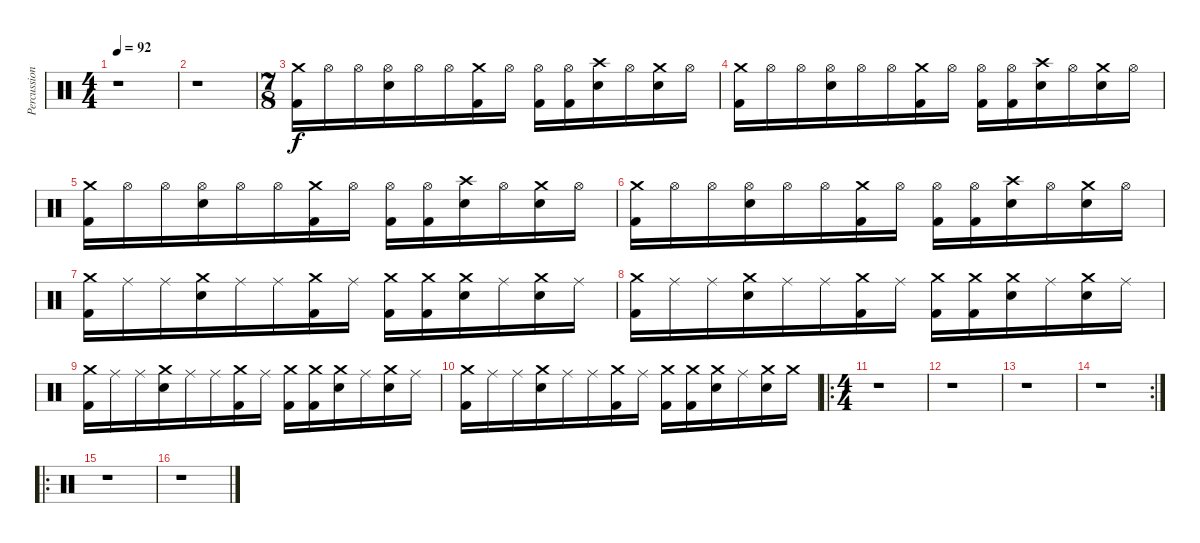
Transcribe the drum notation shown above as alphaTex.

\track ("Percussion" "Percussion") {instrument percussion}
\staff {score}
\articulation defaults
\ts (4 4)
\tempo 92
\clef neutral
\ks c
r.1{dy f} |
r.1 |
\ts (7 8)
("Crash medium (hit)" "Kick (hit) 2").16 "Hi-Hat (open)".16 "Hi-Hat (open)".16 ("Hi-Hat (open)" "Electric Snare (hit)").16 "Hi-Hat (open)".16 "Hi-Hat (open)".16 ("Crash medium (hit)" "Kick (hit) 2").16 "Hi-Hat (open)".16 ("Hi-Hat (open)" "Kick (hit) 2").16 ("Hi-Hat (open)" "Kick (hit) 2").16 ("Crash high (hit)" "Electric Snare (hit)").16 "Hi-Hat (open)".16 ("Crash medium (hit)" "Electric Snare (hit)").16 "Hi-Hat (open)".16 |
("Crash medium (hit)" "Kick (hit) 2").16 "Hi-Hat (open)".16 "Hi-Hat (open)".16 ("Hi-Hat (open)" "Electric Snare (hit)").16 "Hi-Hat (open)".16 "Hi-Hat (open)".16 ("Crash medium (hit)" "Kick (hit) 2").16 "Hi-Hat (open)".16 ("Hi-Hat (open)" "Kick (hit) 2").16 ("Hi-Hat (open)" "Kick (hit) 2").16 ("Crash high (hit)" "Electric Snare (hit)").16 "Hi-Hat (open)".16 ("Crash medium (hit)" "Electric Snare (hit)").16 "Hi-Hat (open)".16 |
("Crash medium (hit)" "Kick (hit) 2").16 "Hi-Hat (open)".16 "Hi-Hat (open)".16 ("Hi-Hat (open)" "Electric Snare (hit)").16 "Hi-Hat (open)".16 "Hi-Hat (open)".16 ("Crash medium (hit)" "Kick (hit) 2").16 "Hi-Hat (open)".16 ("Hi-Hat (open)" "Kick (hit) 2").16 ("Hi-Hat (open)" "Kick (hit) 2").16 ("Crash high (hit)" "Electric Snare (hit)").16 "Hi-Hat (open)".16 ("Crash medium (hit)" "Electric Snare (hit)").16 "Hi-Hat (open)".16 |
("Crash medium (hit)" "Kick (hit) 2").16 "Hi-Hat (open)".16 "Hi-Hat (open)".16 ("Hi-Hat (open)" "Electric Snare (hit)").16 "Hi-Hat (open)".16 "Hi-Hat (open)".16 ("Crash medium (hit)" "Kick (hit) 2").16 "Hi-Hat (open)".16 ("Hi-Hat (open)" "Kick (hit) 2").16 ("Hi-Hat (open)" "Kick (hit) 2").16 ("Crash high (hit)" "Electric Snare (hit)").16 "Hi-Hat (open)".16 ("Crash medium (hit)" "Electric Snare (hit)").16 "Hi-Hat (open)".16 |
("Crash medium (hit)" "Kick (hit) 2").16 "Ride (middle)".16 "Ride (middle)".16 ("Crash medium (hit)" "Electric Snare (hit)").16 "Ride (middle)".16 "Ride (middle)".16 ("Crash medium (hit)" "Kick (hit) 2").16 "Ride (middle)".16 ("Crash medium (hit)" "Kick (hit) 2").16 ("Crash medium (hit)" "Kick (hit) 2").16 ("Crash medium (hit)" "Electric Snare (hit)").16 "Ride (middle)".16 ("Crash medium (hit)" "Electric Snare (hit)").16 "Ride (middle)".16 |
("Crash medium (hit)" "Kick (hit) 2").16 "Ride (middle)".16 "Ride (middle)".16 ("Crash medium (hit)" "Electric Snare (hit)").16 "Ride (middle)".16 "Ride (middle)".16 ("Crash medium (hit)" "Kick (hit) 2").16 "Ride (middle)".16 ("Crash medium (hit)" "Kick (hit) 2").16 ("Crash medium (hit)" "Kick (hit) 2").16 ("Crash medium (hit)" "Electric Snare (hit)").16 "Ride (middle)".16 ("Crash medium (hit)" "Electric Snare (hit)").16 "Ride (middle)".16 |
("Crash medium (hit)" "Kick (hit) 2").16 "Ride (middle)".16 "Ride (middle)".16 ("Crash medium (hit)" "Electric Snare (hit)").16 "Ride (middle)".16 "Ride (middle)".16 ("Crash medium (hit)" "Kick (hit) 2").16 "Ride (middle)".16 ("Crash medium (hit)" "Kick (hit) 2").16 ("Crash medium (hit)" "Kick (hit) 2").16 ("Crash medium (hit)" "Electric Snare (hit)").16 "Ride (middle)".16 ("Crash medium (hit)" "Electric Snare (hit)").16 "Ride (middle)".16 |
("Crash medium (hit)" "Kick (hit) 2").16 "Ride (middle)".16 "Ride (middle)".16 ("Crash medium (hit)" "Electric Snare (hit)").16 "Ride (middle)".16 "Ride (middle)".16 ("Crash medium (hit)" "Kick (hit) 2").16 "Ride (middle)".16 ("Crash medium (hit)" "Kick (hit) 2").16 ("Crash medium (hit)" "Kick (hit) 2").16 ("Crash medium (hit)" "Electric Snare (hit)").16 "Ride (middle)".16 ("Crash medium (hit)" "Electric Snare (hit)").16 "Crash medium (hit)".16 |
\ro
\ts (4 4)
r.1 |
r.1 |
r.1 |
\rc 2
r.1 |
\ro
r.1 |
r.1
